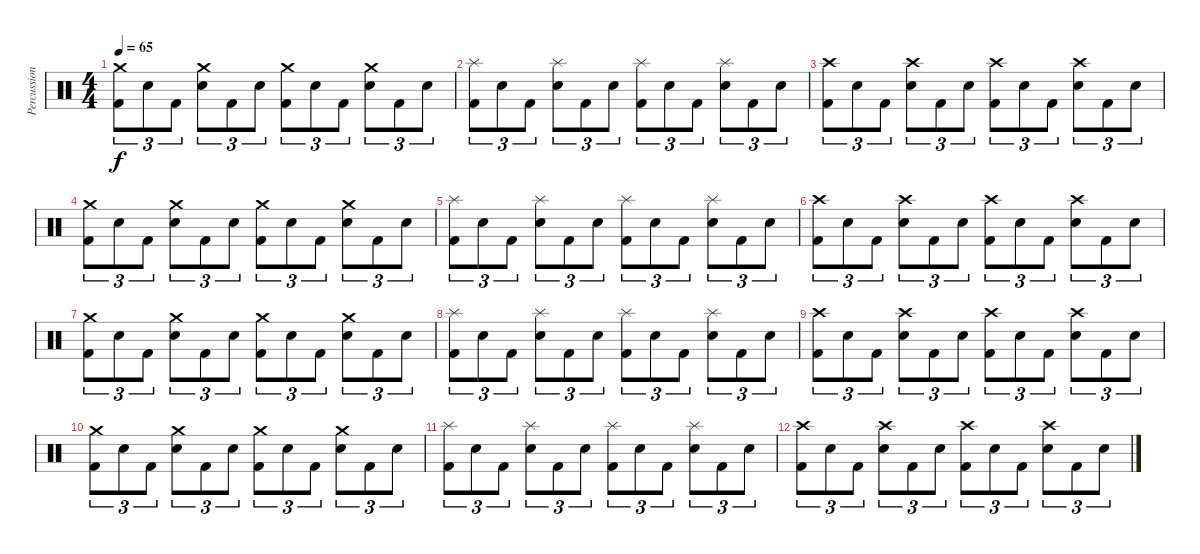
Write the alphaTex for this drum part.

\track ("Percussion" "Percussion") {instrument percussion}
\staff {score}
\articulation defaults
\ts (4 4)
\tempo 65
\clef neutral
\ks c
("Crash medium (hit)" "Kick (hit) 2").8{tu (3 2) dy f} "Snare (hit) 2".8{tu (3 2)} "Kick (hit) 2".8{tu (3 2)} ("Crash medium (hit)" "Snare (hit) 2").8{tu (3 2)} "Kick (hit) 2".8{tu (3 2)} "Snare (hit) 2".8{tu (3 2)} ("Crash medium (hit)" "Kick (hit) 2").8{tu (3 2)} "Snare (hit) 2".8{tu (3 2)} "Kick (hit) 2".8{tu (3 2)} ("Crash medium (hit)" "Snare (hit) 2").8{tu (3 2)} "Kick (hit) 2".8{tu (3 2)} "Snare (hit) 2".8{tu (3 2)} |
("Splash (hit)" "Kick (hit) 2").8{tu (3 2)} "Snare (hit) 2".8{tu (3 2)} "Kick (hit) 2".8{tu (3 2)} ("Splash (hit)" "Snare (hit) 2").8{tu (3 2)} "Kick (hit) 2".8{tu (3 2)} "Snare (hit) 2".8{tu (3 2)} ("Splash (hit)" "Kick (hit) 2").8{tu (3 2)} "Snare (hit) 2".8{tu (3 2)} "Kick (hit) 2".8{tu (3 2)} ("Splash (hit)" "Snare (hit) 2").8{tu (3 2)} "Kick (hit) 2".8{tu (3 2)} "Snare (hit) 2".8{tu (3 2)} |
("Crash high (hit)" "Kick (hit) 2").8{tu (3 2)} "Snare (hit) 2".8{tu (3 2)} "Kick (hit) 2".8{tu (3 2)} ("Crash high (hit)" "Snare (hit) 2").8{tu (3 2)} "Kick (hit) 2".8{tu (3 2)} "Snare (hit) 2".8{tu (3 2)} ("Crash high (hit)" "Kick (hit) 2").8{tu (3 2)} "Snare (hit) 2".8{tu (3 2)} "Kick (hit) 2".8{tu (3 2)} ("Crash high (hit)" "Snare (hit) 2").8{tu (3 2)} "Kick (hit) 2".8{tu (3 2)} "Snare (hit) 2".8{tu (3 2)} |
("Crash medium (hit)" "Kick (hit) 2").8{tu (3 2)} "Snare (hit) 2".8{tu (3 2)} "Kick (hit) 2".8{tu (3 2)} ("Crash medium (hit)" "Snare (hit) 2").8{tu (3 2)} "Kick (hit) 2".8{tu (3 2)} "Snare (hit) 2".8{tu (3 2)} ("Crash medium (hit)" "Kick (hit) 2").8{tu (3 2)} "Snare (hit) 2".8{tu (3 2)} "Kick (hit) 2".8{tu (3 2)} ("Crash medium (hit)" "Snare (hit) 2").8{tu (3 2)} "Kick (hit) 2".8{tu (3 2)} "Snare (hit) 2".8{tu (3 2)} |
("Splash (hit)" "Kick (hit) 2").8{tu (3 2)} "Snare (hit) 2".8{tu (3 2)} "Kick (hit) 2".8{tu (3 2)} ("Splash (hit)" "Snare (hit) 2").8{tu (3 2)} "Kick (hit) 2".8{tu (3 2)} "Snare (hit) 2".8{tu (3 2)} ("Splash (hit)" "Kick (hit) 2").8{tu (3 2)} "Snare (hit) 2".8{tu (3 2)} "Kick (hit) 2".8{tu (3 2)} ("Splash (hit)" "Snare (hit) 2").8{tu (3 2)} "Kick (hit) 2".8{tu (3 2)} "Snare (hit) 2".8{tu (3 2)} |
("Crash high (hit)" "Kick (hit) 2").8{tu (3 2)} "Snare (hit) 2".8{tu (3 2)} "Kick (hit) 2".8{tu (3 2)} ("Crash high (hit)" "Snare (hit) 2").8{tu (3 2)} "Kick (hit) 2".8{tu (3 2)} "Snare (hit) 2".8{tu (3 2)} ("Crash high (hit)" "Kick (hit) 2").8{tu (3 2)} "Snare (hit) 2".8{tu (3 2)} "Kick (hit) 2".8{tu (3 2)} ("Crash high (hit)" "Snare (hit) 2").8{tu (3 2)} "Kick (hit) 2".8{tu (3 2)} "Snare (hit) 2".8{tu (3 2)} |
("Crash medium (hit)" "Kick (hit) 2").8{tu (3 2)} "Snare (hit) 2".8{tu (3 2)} "Kick (hit) 2".8{tu (3 2)} ("Crash medium (hit)" "Snare (hit) 2").8{tu (3 2)} "Kick (hit) 2".8{tu (3 2)} "Snare (hit) 2".8{tu (3 2)} ("Crash medium (hit)" "Kick (hit) 2").8{tu (3 2)} "Snare (hit) 2".8{tu (3 2)} "Kick (hit) 2".8{tu (3 2)} ("Crash medium (hit)" "Snare (hit) 2").8{tu (3 2)} "Kick (hit) 2".8{tu (3 2)} "Snare (hit) 2".8{tu (3 2)} |
("Splash (hit)" "Kick (hit) 2").8{tu (3 2)} "Snare (hit) 2".8{tu (3 2)} "Kick (hit) 2".8{tu (3 2)} ("Splash (hit)" "Snare (hit) 2").8{tu (3 2)} "Kick (hit) 2".8{tu (3 2)} "Snare (hit) 2".8{tu (3 2)} ("Splash (hit)" "Kick (hit) 2").8{tu (3 2)} "Snare (hit) 2".8{tu (3 2)} "Kick (hit) 2".8{tu (3 2)} ("Splash (hit)" "Snare (hit) 2").8{tu (3 2)} "Kick (hit) 2".8{tu (3 2)} "Snare (hit) 2".8{tu (3 2)} |
("Crash high (hit)" "Kick (hit) 2").8{tu (3 2)} "Snare (hit) 2".8{tu (3 2)} "Kick (hit) 2".8{tu (3 2)} ("Crash high (hit)" "Snare (hit) 2").8{tu (3 2)} "Kick (hit) 2".8{tu (3 2)} "Snare (hit) 2".8{tu (3 2)} ("Crash high (hit)" "Kick (hit) 2").8{tu (3 2)} "Snare (hit) 2".8{tu (3 2)} "Kick (hit) 2".8{tu (3 2)} ("Crash high (hit)" "Snare (hit) 2").8{tu (3 2)} "Kick (hit) 2".8{tu (3 2)} "Snare (hit) 2".8{tu (3 2)} |
("Crash medium (hit)" "Kick (hit) 2").8{tu (3 2)} "Snare (hit) 2".8{tu (3 2)} "Kick (hit) 2".8{tu (3 2)} ("Crash medium (hit)" "Snare (hit) 2").8{tu (3 2)} "Kick (hit) 2".8{tu (3 2)} "Snare (hit) 2".8{tu (3 2)} ("Crash medium (hit)" "Kick (hit) 2").8{tu (3 2)} "Snare (hit) 2".8{tu (3 2)} "Kick (hit) 2".8{tu (3 2)} ("Crash medium (hit)" "Snare (hit) 2").8{tu (3 2)} "Kick (hit) 2".8{tu (3 2)} "Snare (hit) 2".8{tu (3 2)} |
("Splash (hit)" "Kick (hit) 2").8{tu (3 2)} "Snare (hit) 2".8{tu (3 2)} "Kick (hit) 2".8{tu (3 2)} ("Splash (hit)" "Snare (hit) 2").8{tu (3 2)} "Kick (hit) 2".8{tu (3 2)} "Snare (hit) 2".8{tu (3 2)} ("Splash (hit)" "Kick (hit) 2").8{tu (3 2)} "Snare (hit) 2".8{tu (3 2)} "Kick (hit) 2".8{tu (3 2)} ("Splash (hit)" "Snare (hit) 2").8{tu (3 2)} "Kick (hit) 2".8{tu (3 2)} "Snare (hit) 2".8{tu (3 2)} |
("Crash high (hit)" "Kick (hit) 2").8{tu (3 2)} "Snare (hit) 2".8{tu (3 2)} "Kick (hit) 2".8{tu (3 2)} ("Crash high (hit)" "Snare (hit) 2").8{tu (3 2)} "Kick (hit) 2".8{tu (3 2)} "Snare (hit) 2".8{tu (3 2)} ("Crash high (hit)" "Kick (hit) 2").8{tu (3 2)} "Snare (hit) 2".8{tu (3 2)} "Kick (hit) 2".8{tu (3 2)} ("Crash high (hit)" "Snare (hit) 2").8{tu (3 2)} "Kick (hit) 2".8{tu (3 2)} "Snare (hit) 2".8{tu (3 2)}
